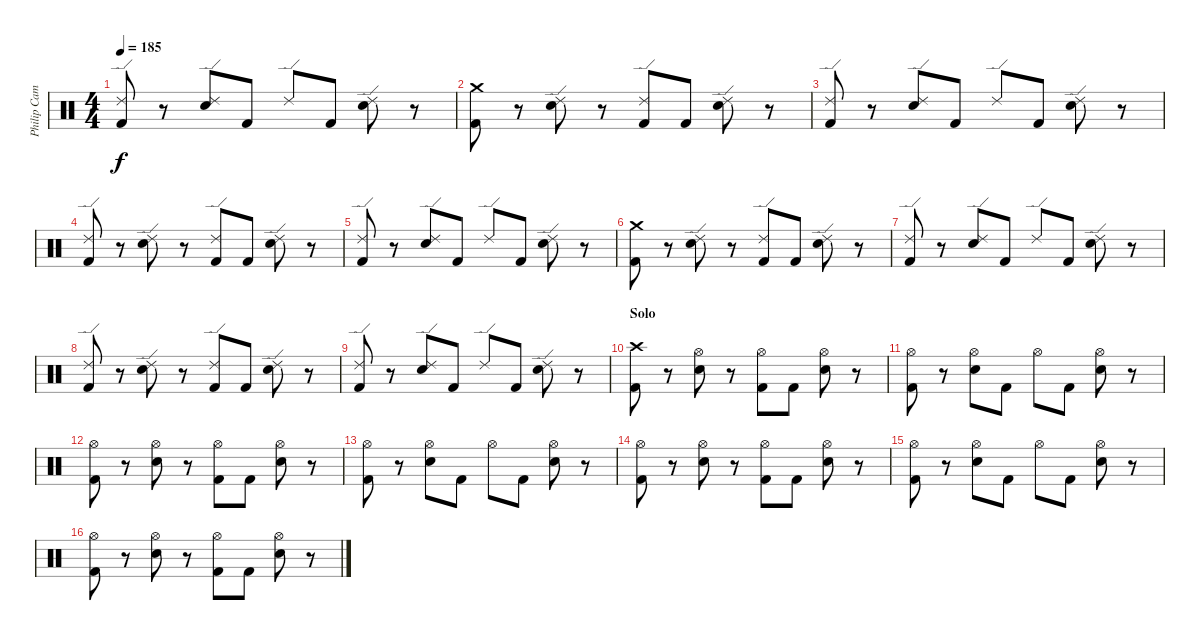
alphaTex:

\track ("Philip Campbell" "Philip Cam") {instrument percussion}
\staff {score}
\articulation defaults
\ts (4 4)
\tempo 185
\clef neutral
\ks c
("Ride (edge) 2" "Kick (hit) 2").8{dy f} r.8 ("Ride (edge) 2" "Electric Snare (hit)").8 "Kick (hit) 2".8 "Ride (edge) 2".8 "Kick (hit) 2".8 ("Ride (edge) 2" "Electric Snare (hit)").8 r.8 |
("Crash medium (hit)" "Kick (hit) 2").8 r.8 ("Ride (edge) 2" "Electric Snare (hit)").8 r.8 ("Ride (edge) 2" "Kick (hit) 2").8 "Kick (hit) 2".8 ("Ride (edge) 2" "Electric Snare (hit)").8 r.8 |
("Ride (edge) 2" "Kick (hit) 2").8 r.8 ("Ride (edge) 2" "Electric Snare (hit)").8 "Kick (hit) 2".8 "Ride (edge) 2".8 "Kick (hit) 2".8 ("Ride (edge) 2" "Electric Snare (hit)").8 r.8 |
("Ride (edge) 2" "Kick (hit) 2").8 r.8 ("Ride (edge) 2" "Electric Snare (hit)").8 r.8 ("Ride (edge) 2" "Kick (hit) 2").8 "Kick (hit) 2".8 ("Ride (edge) 2" "Electric Snare (hit)").8 r.8 |
("Ride (edge) 2" "Kick (hit) 2").8 r.8 ("Ride (edge) 2" "Electric Snare (hit)").8 "Kick (hit) 2".8 "Ride (edge) 2".8 "Kick (hit) 2".8 ("Ride (edge) 2" "Electric Snare (hit)").8 r.8 |
("Crash medium (hit)" "Kick (hit) 2").8 r.8 ("Ride (edge) 2" "Electric Snare (hit)").8 r.8 ("Ride (edge) 2" "Kick (hit) 2").8 "Kick (hit) 2".8 ("Ride (edge) 2" "Electric Snare (hit)").8 r.8 |
("Ride (edge) 2" "Kick (hit) 2").8 r.8 ("Ride (edge) 2" "Electric Snare (hit)").8 "Kick (hit) 2".8 "Ride (edge) 2".8 "Kick (hit) 2".8 ("Ride (edge) 2" "Electric Snare (hit)").8 r.8 |
("Ride (edge) 2" "Kick (hit) 2").8 r.8 ("Ride (edge) 2" "Electric Snare (hit)").8 r.8 ("Ride (edge) 2" "Kick (hit) 2").8 "Kick (hit) 2".8 ("Ride (edge) 2" "Electric Snare (hit)").8 r.8 |
("Ride (edge) 2" "Kick (hit) 2").8 r.8 ("Ride (edge) 2" "Electric Snare (hit)").8 "Kick (hit) 2".8 "Ride (edge) 2".8 "Kick (hit) 2".8 ("Ride (edge) 2" "Electric Snare (hit)").8 r.8 |
\section ("" "Solo")
("Crash high (hit)" "Kick (hit) 2").8 r.8 ("Hi-Hat (open)" "Electric Snare (hit)").8 r.8 ("Hi-Hat (open)" "Kick (hit) 2").8 "Kick (hit) 2".8 ("Hi-Hat (open)" "Electric Snare (hit)").8 r.8 |
("Hi-Hat (open)" "Kick (hit) 2").8 r.8 ("Hi-Hat (open)" "Electric Snare (hit)").8 "Kick (hit) 2".8 "Hi-Hat (open)".8 "Kick (hit) 2".8 ("Hi-Hat (open)" "Electric Snare (hit)").8 r.8 |
("Hi-Hat (open)" "Kick (hit) 2").8 r.8 ("Hi-Hat (open)" "Electric Snare (hit)").8 r.8 ("Hi-Hat (open)" "Kick (hit) 2").8 "Kick (hit) 2".8 ("Hi-Hat (open)" "Electric Snare (hit)").8 r.8 |
("Hi-Hat (open)" "Kick (hit) 2").8 r.8 ("Hi-Hat (open)" "Electric Snare (hit)").8 "Kick (hit) 2".8 "Hi-Hat (open)".8 "Kick (hit) 2".8 ("Hi-Hat (open)" "Electric Snare (hit)").8 r.8 |
("Hi-Hat (open)" "Kick (hit) 2").8 r.8 ("Hi-Hat (open)" "Electric Snare (hit)").8 r.8 ("Hi-Hat (open)" "Kick (hit) 2").8 "Kick (hit) 2".8 ("Hi-Hat (open)" "Electric Snare (hit)").8 r.8 |
("Hi-Hat (open)" "Kick (hit) 2").8 r.8 ("Hi-Hat (open)" "Electric Snare (hit)").8 "Kick (hit) 2".8 "Hi-Hat (open)".8 "Kick (hit) 2".8 ("Hi-Hat (open)" "Electric Snare (hit)").8 r.8 |
("Hi-Hat (open)" "Kick (hit) 2").8 r.8 ("Hi-Hat (open)" "Electric Snare (hit)").8 r.8 ("Hi-Hat (open)" "Kick (hit) 2").8 "Kick (hit) 2".8 ("Hi-Hat (open)" "Electric Snare (hit)").8 r.8
